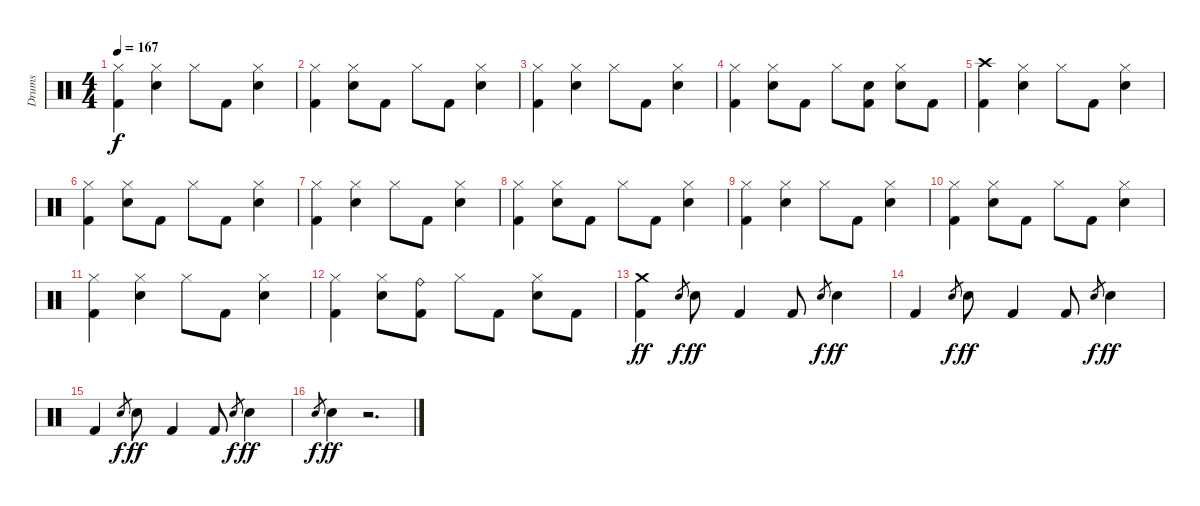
\track ("Drums" "Drums") {instrument percussion}
\staff {score}
\articulation defaults
\ts (4 4)
\tempo 167
\clef neutral
\ks c
("Kick (hit) 2" "Hi-Hat (closed)").4{dy f} ("Hi-Hat (closed)" "Snare (hit) 2").4 "Hi-Hat (closed)".8 "Kick (hit) 2".8 ("Hi-Hat (closed)" "Snare (hit) 2").4 |
("Hi-Hat (closed)" "Kick (hit) 2").4 ("Hi-Hat (closed)" "Snare (hit) 2").8 "Kick (hit) 2".8 "Hi-Hat (closed)".8 "Kick (hit) 2".8 ("Hi-Hat (closed)" "Snare (hit) 2").4 |
("Kick (hit) 2" "Hi-Hat (closed)").4 ("Hi-Hat (closed)" "Snare (hit) 2").4 "Hi-Hat (closed)".8 "Kick (hit) 2".8 ("Hi-Hat (closed)" "Snare (hit) 2").4 |
("Hi-Hat (closed)" "Kick (hit) 2").4 ("Hi-Hat (closed)" "Snare (hit) 2").8 "Kick (hit) 2".8 "Hi-Hat (closed)".8 ("Snare (hit) 2" "Kick (hit) 2").8 ("Hi-Hat (closed)" "Snare (hit) 2").8 "Kick (hit) 2".8 |
("Kick (hit) 2" "Crash high (hit)").4 ("Hi-Hat (closed)" "Snare (hit) 2").4 "Hi-Hat (closed)".8 "Kick (hit) 2".8 ("Hi-Hat (closed)" "Snare (hit) 2").4 |
("Hi-Hat (closed)" "Kick (hit) 2").4 ("Hi-Hat (closed)" "Snare (hit) 2").8 "Kick (hit) 2".8 "Hi-Hat (closed)".8 "Kick (hit) 2".8 ("Hi-Hat (closed)" "Snare (hit) 2").4 |
("Kick (hit) 2" "Hi-Hat (closed)").4 ("Hi-Hat (closed)" "Snare (hit) 2").4 "Hi-Hat (closed)".8 "Kick (hit) 2".8 ("Hi-Hat (closed)" "Snare (hit) 2").4 |
("Hi-Hat (closed)" "Kick (hit) 2").4 ("Hi-Hat (closed)" "Snare (hit) 2").8 "Kick (hit) 2".8 "Hi-Hat (closed)".8 "Kick (hit) 2".8 ("Hi-Hat (closed)" "Snare (hit) 2").4 |
("Kick (hit) 2" "Hi-Hat (closed)").4 ("Hi-Hat (closed)" "Snare (hit) 2").4 "Hi-Hat (closed)".8 "Kick (hit) 2".8 ("Hi-Hat (closed)" "Snare (hit) 2").4 |
("Hi-Hat (closed)" "Kick (hit) 2").4 ("Hi-Hat (closed)" "Snare (hit) 2").8 "Kick (hit) 2".8 "Hi-Hat (closed)".8 "Kick (hit) 2".8 ("Hi-Hat (closed)" "Snare (hit) 2").4 |
("Kick (hit) 2" "Hi-Hat (closed)").4 ("Hi-Hat (closed)" "Snare (hit) 2").4 "Hi-Hat (closed)".8 "Kick (hit) 2".8 ("Hi-Hat (closed)" "Snare (hit) 2").4 |
("Hi-Hat (closed)" "Kick (hit) 2").4 ("Hi-Hat (closed)" "Snare (hit) 2").8 ("Kick (hit) 2" "Ride (bell)").8 "Hi-Hat (closed)".8 "Kick (hit) 2".8 ("Hi-Hat (closed)" "Snare (hit) 2").8 "Kick (hit) 2".8 |
("Kick (hit) 2" "Crash medium (hit)").4{dy ff} "Snare (hit) 2".8{gr dy f} "Snare (hit) 2".8{dy ff} "Kick (hit) 2".4 "Kick (hit) 2".8 "Snare (hit) 2".8{gr dy f} "Snare (hit) 2".4{dy ff} |
"Kick (hit) 2".4 "Snare (hit) 2".8{gr dy f} "Snare (hit) 2".8{dy ff} "Kick (hit) 2".4 "Kick (hit) 2".8 "Snare (hit) 2".8{gr dy f} "Snare (hit) 2".4{dy ff} |
"Kick (hit) 2".4 "Snare (hit) 2".8{gr dy f} "Snare (hit) 2".8{dy ff} "Kick (hit) 2".4 "Kick (hit) 2".8 "Snare (hit) 2".8{gr dy f} "Snare (hit) 2".4{dy ff} |
"Snare (hit) 2".8{gr dy f} "Snare (hit) 2".4{dy ff} r.2{d}
